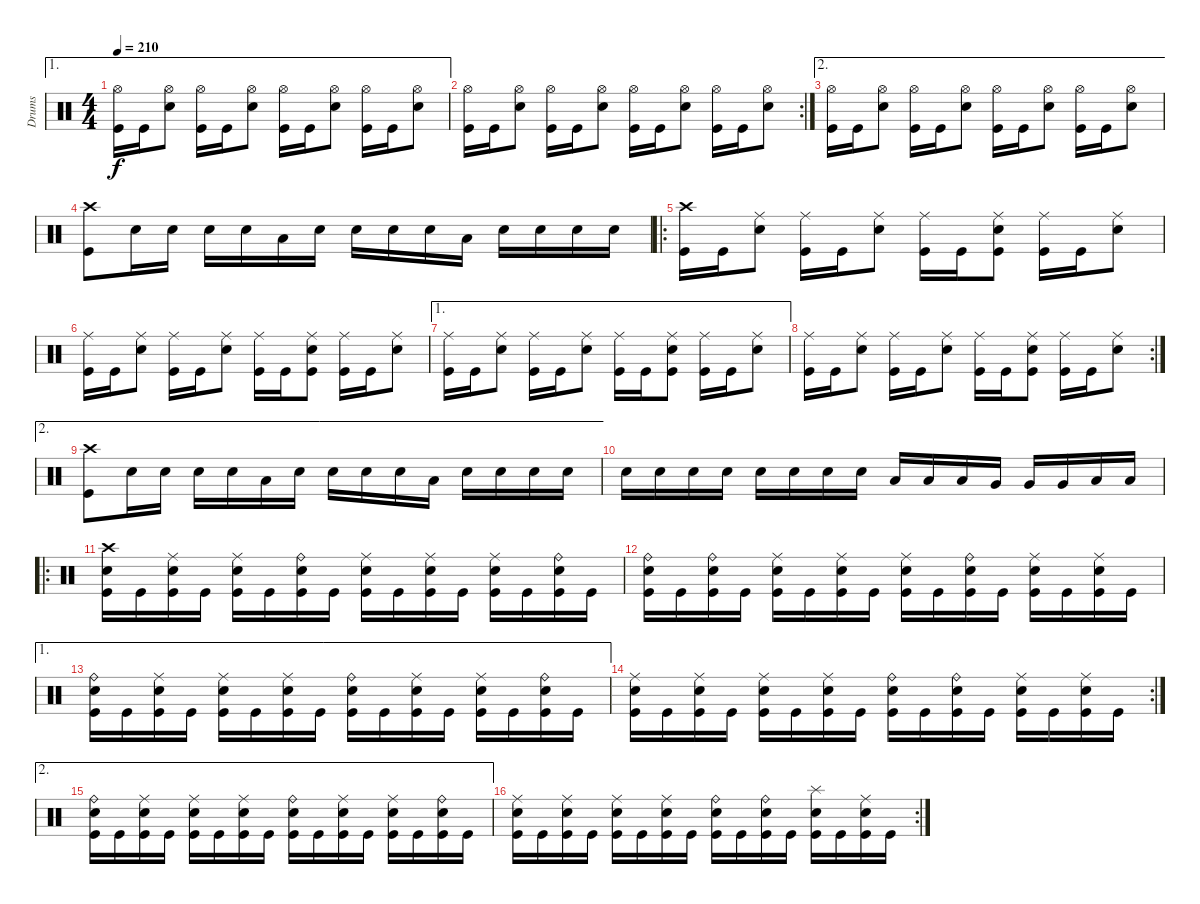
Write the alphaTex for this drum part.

\track ("Drums" "Drums") {instrument percussion}
\staff {score}
\articulation defaults
\ae 1
\ts (4 4)
\tempo 210
\clef neutral
\ks c
("Hi-Hat (open)" "Kick (hit)").16{dy f} "Kick (hit)".16 ("Hi-Hat (open)" "Electric Snare (hit)").8 ("Hi-Hat (open)" "Kick (hit)").16 "Kick (hit)".16 ("Hi-Hat (open)" "Electric Snare (hit)").8 ("Hi-Hat (open)" "Kick (hit)").16 "Kick (hit)".16 ("Hi-Hat (open)" "Electric Snare (hit)").8 ("Hi-Hat (open)" "Kick (hit)").16 "Kick (hit)".16 ("Hi-Hat (open)" "Electric Snare (hit)").8 |
\rc 2
("Hi-Hat (open)" "Kick (hit)").16 "Kick (hit)".16 ("Hi-Hat (open)" "Electric Snare (hit)").8 ("Hi-Hat (open)" "Kick (hit)").16 "Kick (hit)".16 ("Hi-Hat (open)" "Electric Snare (hit)").8 ("Hi-Hat (open)" "Kick (hit)").16 "Kick (hit)".16 ("Hi-Hat (open)" "Electric Snare (hit)").8 ("Hi-Hat (open)" "Kick (hit)").16 "Kick (hit)".16 ("Hi-Hat (open)" "Electric Snare (hit)").8 |
\ae 2
("Hi-Hat (open)" "Kick (hit)").16 "Kick (hit)".16 ("Hi-Hat (open)" "Electric Snare (hit)").8 ("Hi-Hat (open)" "Kick (hit)").16 "Kick (hit)".16 ("Hi-Hat (open)" "Electric Snare (hit)").8 ("Hi-Hat (open)" "Kick (hit)").16 "Kick (hit)".16 ("Hi-Hat (open)" "Electric Snare (hit)").8 ("Hi-Hat (open)" "Kick (hit)").16 "Kick (hit)".16 ("Hi-Hat (open)" "Electric Snare (hit)").8 |
("Crash high (hit)" "Kick (hit)").8 "Electric Snare (hit)".16 "Electric Snare (hit)".16 "Electric Snare (hit)".16 "Electric Snare (hit)".16 "Low Tom (hit)".16 "Electric Snare (hit)".16 "Electric Snare (hit)".16 "Electric Snare (hit)".16 "Electric Snare (hit)".16 "Low Tom (hit)".16 "Electric Snare (hit)".16 "Electric Snare (hit)".16 "Electric Snare (hit)".16 "Electric Snare (hit)".16 |
\ro
("Crash high (hit)" "Kick (hit)").16 "Kick (hit)".16 ("Ride (middle)" "Electric Snare (hit)").8 ("Ride (middle)" "Kick (hit)").16 "Kick (hit)".16 ("Ride (middle)" "Electric Snare (hit)").8 ("Ride (middle)" "Kick (hit)").16 "Kick (hit)".16 ("Ride (middle)" "Electric Snare (hit)" "Kick (hit)").8 ("Ride (middle)" "Kick (hit)").16 "Kick (hit)".16 ("Ride (middle)" "Electric Snare (hit)").8 |
("Ride (middle)" "Kick (hit)").16 "Kick (hit)".16 ("Ride (middle)" "Electric Snare (hit)").8 ("Ride (middle)" "Kick (hit)").16 "Kick (hit)".16 ("Ride (middle)" "Electric Snare (hit)").8 ("Ride (middle)" "Kick (hit)").16 "Kick (hit)".16 ("Ride (middle)" "Electric Snare (hit)" "Kick (hit)").8 ("Ride (middle)" "Kick (hit)").16 "Kick (hit)".16 ("Ride (middle)" "Electric Snare (hit)").8 |
\ae 1
("Ride (middle)" "Kick (hit)").16 "Kick (hit)".16 ("Ride (middle)" "Electric Snare (hit)").8 ("Ride (middle)" "Kick (hit)").16 "Kick (hit)".16 ("Ride (middle)" "Electric Snare (hit)").8 ("Ride (middle)" "Kick (hit)").16 "Kick (hit)".16 ("Ride (middle)" "Electric Snare (hit)" "Kick (hit)").8 ("Ride (middle)" "Kick (hit)").16 "Kick (hit)".16 ("Ride (middle)" "Electric Snare (hit)").8 |
\rc 2
("Ride (middle)" "Kick (hit)").16 "Kick (hit)".16 ("Ride (middle)" "Electric Snare (hit)").8 ("Ride (middle)" "Kick (hit)").16 "Kick (hit)".16 ("Ride (middle)" "Electric Snare (hit)").8 ("Ride (middle)" "Kick (hit)").16 "Kick (hit)".16 ("Ride (middle)" "Electric Snare (hit)" "Kick (hit)").8 ("Ride (middle)" "Kick (hit)").16 "Kick (hit)".16 ("Ride (middle)" "Electric Snare (hit)").8 |
\ae 2
("Crash high (hit)" "Kick (hit)").8 "Electric Snare (hit)".16 "Electric Snare (hit)".16 "Electric Snare (hit)".16 "Electric Snare (hit)".16 "Low Tom (hit)".16 "Electric Snare (hit)".16 "Electric Snare (hit)".16 "Electric Snare (hit)".16 "Electric Snare (hit)".16 "Low Tom (hit)".16 "Electric Snare (hit)".16 "Electric Snare (hit)".16 "Electric Snare (hit)".16 "Electric Snare (hit)".16 |
"Electric Snare (hit)".16 "Electric Snare (hit)".16 "Electric Snare (hit)".16 "Electric Snare (hit)".16 "Electric Snare (hit)".16 "Electric Snare (hit)".16 "Electric Snare (hit)".16 "Electric Snare (hit)".16 "Low Tom (hit)".16 "Low Tom (hit)".16 "Low Tom (hit)".16 "Very Low Tom (hit)".16 "Very Low Tom (hit)".16 "Very Low Tom (hit)".16 "Low Floor Tom (hit)".16 "Low Floor Tom (hit)".16 |
\ro
("Crash high (hit)" "Electric Snare (hit)" "Kick (hit)").16 "Kick (hit)".16 ("Ride (middle)" "Electric Snare (hit)" "Kick (hit)").16 "Kick (hit)".16 ("Ride (middle)" "Electric Snare (hit)" "Kick (hit)").16 "Kick (hit)".16 ("Ride (bell)" "Electric Snare (hit)" "Kick (hit)").16 "Kick (hit)".16 ("Ride (middle)" "Electric Snare (hit)" "Kick (hit)").16 "Kick (hit)".16 ("Ride (middle)" "Electric Snare (hit)" "Kick (hit)").16 "Kick (hit)".16 ("Ride (middle)" "Electric Snare (hit)" "Kick (hit)").16 "Kick (hit)".16 ("Ride (bell)" "Electric Snare (hit)" "Kick (hit)").16 "Kick (hit)".16 |
("Ride (bell)" "Electric Snare (hit)" "Kick (hit)").16 "Kick (hit)".16 ("Ride (bell)" "Electric Snare (hit)" "Kick (hit)").16 "Kick (hit)".16 ("Ride (middle)" "Electric Snare (hit)" "Kick (hit)").16 "Kick (hit)".16 ("Ride (middle)" "Electric Snare (hit)" "Kick (hit)").16 "Kick (hit)".16 ("Ride (middle)" "Electric Snare (hit)" "Kick (hit)").16 "Kick (hit)".16 ("Ride (bell)" "Electric Snare (hit)" "Kick (hit)").16 "Kick (hit)".16 ("Ride (middle)" "Electric Snare (hit)" "Kick (hit)").16 "Kick (hit)".16 ("Ride (middle)" "Electric Snare (hit)" "Kick (hit)").16 "Kick (hit)".16 |
\ae 1
("Ride (bell)" "Electric Snare (hit)" "Kick (hit)").16 "Kick (hit)".16 ("Ride (middle)" "Electric Snare (hit)" "Kick (hit)").16 "Kick (hit)".16 ("Ride (middle)" "Electric Snare (hit)" "Kick (hit)").16 "Kick (hit)".16 ("Ride (middle)" "Electric Snare (hit)" "Kick (hit)").16 "Kick (hit)".16 ("Ride (bell)" "Electric Snare (hit)" "Kick (hit)").16 "Kick (hit)".16 ("Ride (middle)" "Electric Snare (hit)" "Kick (hit)").16 "Kick (hit)".16 ("Ride (middle)" "Electric Snare (hit)" "Kick (hit)").16 "Kick (hit)".16 ("Ride (bell)" "Electric Snare (hit)" "Kick (hit)").16 "Kick (hit)".16 |
\rc 2
("Ride (middle)" "Electric Snare (hit)" "Kick (hit)").16 "Kick (hit)".16 ("Ride (middle)" "Electric Snare (hit)" "Kick (hit)").16 "Kick (hit)".16 ("Ride (middle)" "Electric Snare (hit)" "Kick (hit)").16 "Kick (hit)".16 ("Ride (middle)" "Electric Snare (hit)" "Kick (hit)").16 "Kick (hit)".16 ("Ride (bell)" "Electric Snare (hit)" "Kick (hit)").16 "Kick (hit)".16 ("Ride (bell)" "Electric Snare (hit)" "Kick (hit)").16 "Kick (hit)".16 ("Ride (middle)" "Electric Snare (hit)" "Kick (hit)").16 "Kick (hit)".16 ("Ride (middle)" "Electric Snare (hit)" "Kick (hit)").16 "Kick (hit)".16 |
\ae 2
("Ride (bell)" "Electric Snare (hit)" "Kick (hit)").16 "Kick (hit)".16 ("Ride (middle)" "Electric Snare (hit)" "Kick (hit)").16 "Kick (hit)".16 ("Ride (middle)" "Electric Snare (hit)" "Kick (hit)").16 "Kick (hit)".16 ("Ride (middle)" "Electric Snare (hit)" "Kick (hit)").16 "Kick (hit)".16 ("Ride (bell)" "Electric Snare (hit)" "Kick (hit)").16 "Kick (hit)".16 ("Ride (middle)" "Electric Snare (hit)" "Kick (hit)").16 "Kick (hit)".16 ("Ride (middle)" "Electric Snare (hit)" "Kick (hit)").16 "Kick (hit)".16 ("Ride (bell)" "Electric Snare (hit)" "Kick (hit)").16 "Kick (hit)".16 |
\rc 2
("Ride (middle)" "Electric Snare (hit)" "Kick (hit)").16 "Kick (hit)".16 ("Ride (middle)" "Electric Snare (hit)" "Kick (hit)").16 "Kick (hit)".16 ("Ride (middle)" "Electric Snare (hit)" "Kick (hit)").16 "Kick (hit)".16 ("Ride (middle)" "Electric Snare (hit)" "Kick (hit)").16 "Kick (hit)".16 ("Ride (bell)" "Electric Snare (hit)" "Kick (hit)").16 "Kick (hit)".16 ("Ride (bell)" "Electric Snare (hit)" "Kick (hit)").16 "Kick (hit)".16 ("Splash (hit)" "Electric Snare (hit)" "Kick (hit)").16 "Kick (hit)".16 ("Ride (middle)" "Electric Snare (hit)" "Kick (hit)").16 "Kick (hit)".16
